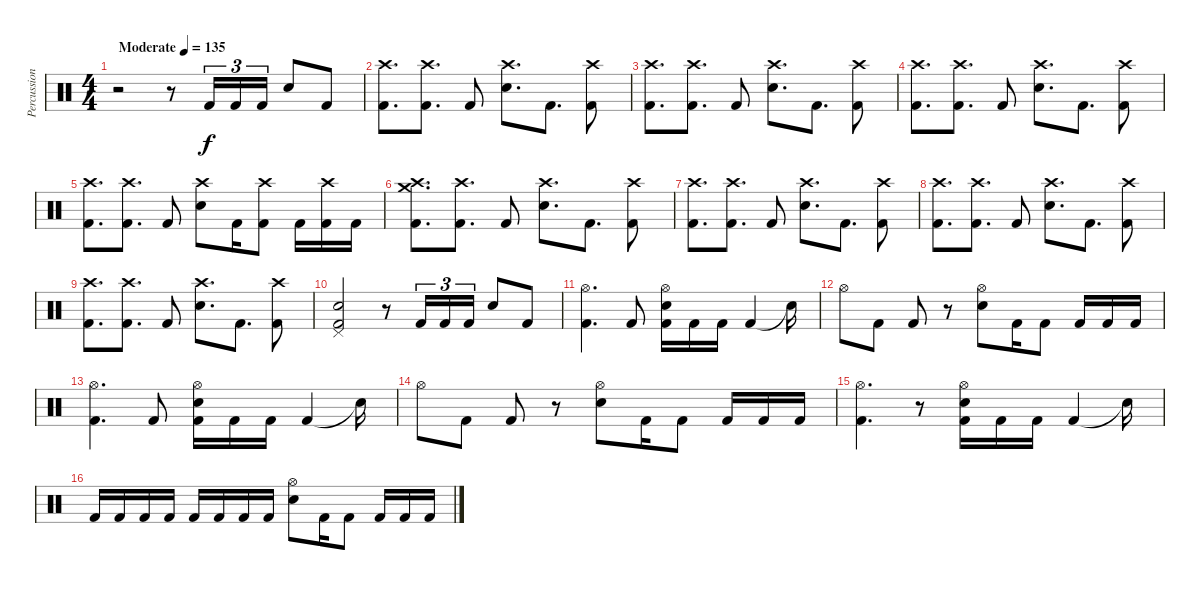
\track ("Percussion" "Percussion") {instrument percussion}
\staff {score}
\articulation defaults
\ts (4 4)
\tempo (135 "Moderate")
\clef neutral
\ks c
r.2{dy f} r.8 "Kick (hit) 2".16{tu (3 2)} "Kick (hit) 2".16{tu (3 2)} "Kick (hit) 2".16{tu (3 2)} "Electric Snare (hit)".8 "Kick (hit) 2".8 |
("Crash high (hit)" "Kick (hit) 2").8{d} ("Crash high (hit)" "Kick (hit) 2").8{d} "Kick (hit) 2".8 ("Crash high (hit)" "Electric Snare (hit)").8{d} "Kick (hit) 2".8{d} ("Crash high (hit)" "Kick (hit) 2").8 |
("Crash high (hit)" "Kick (hit) 2").8{d} ("Crash high (hit)" "Kick (hit) 2").8{d} "Kick (hit) 2".8 ("Crash high (hit)" "Electric Snare (hit)").8{d} "Kick (hit) 2".8{d} ("Crash high (hit)" "Kick (hit) 2").8 |
("Crash high (hit)" "Kick (hit) 2").8{d} ("Crash high (hit)" "Kick (hit) 2").8{d} "Kick (hit) 2".8 ("Crash high (hit)" "Electric Snare (hit)").8{d} "Kick (hit) 2".8{d} ("Crash high (hit)" "Kick (hit) 2").8 |
("Crash high (hit)" "Kick (hit) 2").8{d} ("Crash high (hit)" "Kick (hit) 2").8{d} "Kick (hit) 2".8 ("Crash high (hit)" "Electric Snare (hit)").8 "Kick (hit) 2".16 ("Crash high (hit)" "Kick (hit) 2").8 "Kick (hit) 2".16 ("Crash high (hit)" "Kick (hit) 2").16 "Kick (hit) 2".16 |
("Crash medium (hit)" "Crash high (hit)" "Kick (hit) 2").8{d} ("Crash high (hit)" "Kick (hit) 2").8{d} "Kick (hit) 2".8 ("Crash high (hit)" "Electric Snare (hit)").8{d} "Kick (hit) 2".8{d} ("Crash high (hit)" "Kick (hit) 2").8 |
("Crash high (hit)" "Kick (hit) 2").8{d} ("Crash high (hit)" "Kick (hit) 2").8{d} "Kick (hit) 2".8 ("Crash high (hit)" "Electric Snare (hit)").8{d} "Kick (hit) 2".8{d} ("Crash high (hit)" "Kick (hit) 2").8 |
("Crash high (hit)" "Kick (hit) 2").8{d} ("Crash high (hit)" "Kick (hit) 2").8{d} "Kick (hit) 2".8 ("Crash high (hit)" "Electric Snare (hit)").8{d} "Kick (hit) 2".8{d} ("Crash high (hit)" "Kick (hit) 2").8 |
("Crash high (hit)" "Kick (hit) 2").8{d} ("Crash high (hit)" "Kick (hit) 2").8{d} "Kick (hit) 2".8 ("Crash high (hit)" "Electric Snare (hit)").8{d} "Kick (hit) 2".8{d} ("Crash high (hit)" "Kick (hit) 2").8 |
("Pedal Hi-Hat (hit)" "Electric Snare (hit)" "Kick (hit) 2").2 r.8 "Kick (hit) 2".16{tu (3 2)} "Kick (hit) 2".16{tu (3 2)} "Kick (hit) 2".16{tu (3 2)} "Electric Snare (hit)".8 "Kick (hit) 2".8 |
("Hi-Hat (open)" "Kick (hit) 2").4{d} "Kick (hit) 2".8 ("Hi-Hat (open)" "Electric Snare (hit)" "Kick (hit) 2").16 "Kick (hit) 2".16 "Kick (hit) 2".16 "Kick (hit) 2".4 "Snare (hit)"{t}.16 |
"Hi-Hat (open)".8 "Kick (hit) 2".8 "Kick (hit) 2".8 r.8 ("Hi-Hat (open)" "Electric Snare (hit)").8 "Kick (hit) 2".16 "Kick (hit) 2".8 "Kick (hit) 2".16 "Kick (hit) 2".16 "Kick (hit) 2".16 |
("Hi-Hat (open)" "Kick (hit) 2").4{d} "Kick (hit) 2".8 ("Hi-Hat (open)" "Electric Snare (hit)" "Kick (hit) 2").16 "Kick (hit) 2".16 "Kick (hit) 2".16 "Kick (hit) 2".4 "Snare (hit)"{t}.16 |
"Hi-Hat (open)".8 "Kick (hit) 2".8 "Kick (hit) 2".8 r.8 ("Hi-Hat (open)" "Electric Snare (hit)").8 "Kick (hit) 2".16 "Kick (hit) 2".8 "Kick (hit) 2".16 "Kick (hit) 2".16 "Kick (hit) 2".16 |
("Hi-Hat (open)" "Kick (hit) 2").4{d} r.8 ("Hi-Hat (open)" "Electric Snare (hit)" "Kick (hit) 2").16 "Kick (hit) 2".16 "Kick (hit) 2".16 "Kick (hit) 2".4 "Snare (hit)"{t}.16 |
"Kick (hit) 2".16 "Kick (hit) 2".16 "Kick (hit) 2".16 "Kick (hit) 2".16 "Kick (hit) 2".16 "Kick (hit) 2".16 "Kick (hit) 2".16 "Kick (hit) 2".16 ("Hi-Hat (open)" "Electric Snare (hit)").8 "Kick (hit) 2".16 "Kick (hit) 2".8 "Kick (hit) 2".16 "Kick (hit) 2".16 "Kick (hit) 2".16
